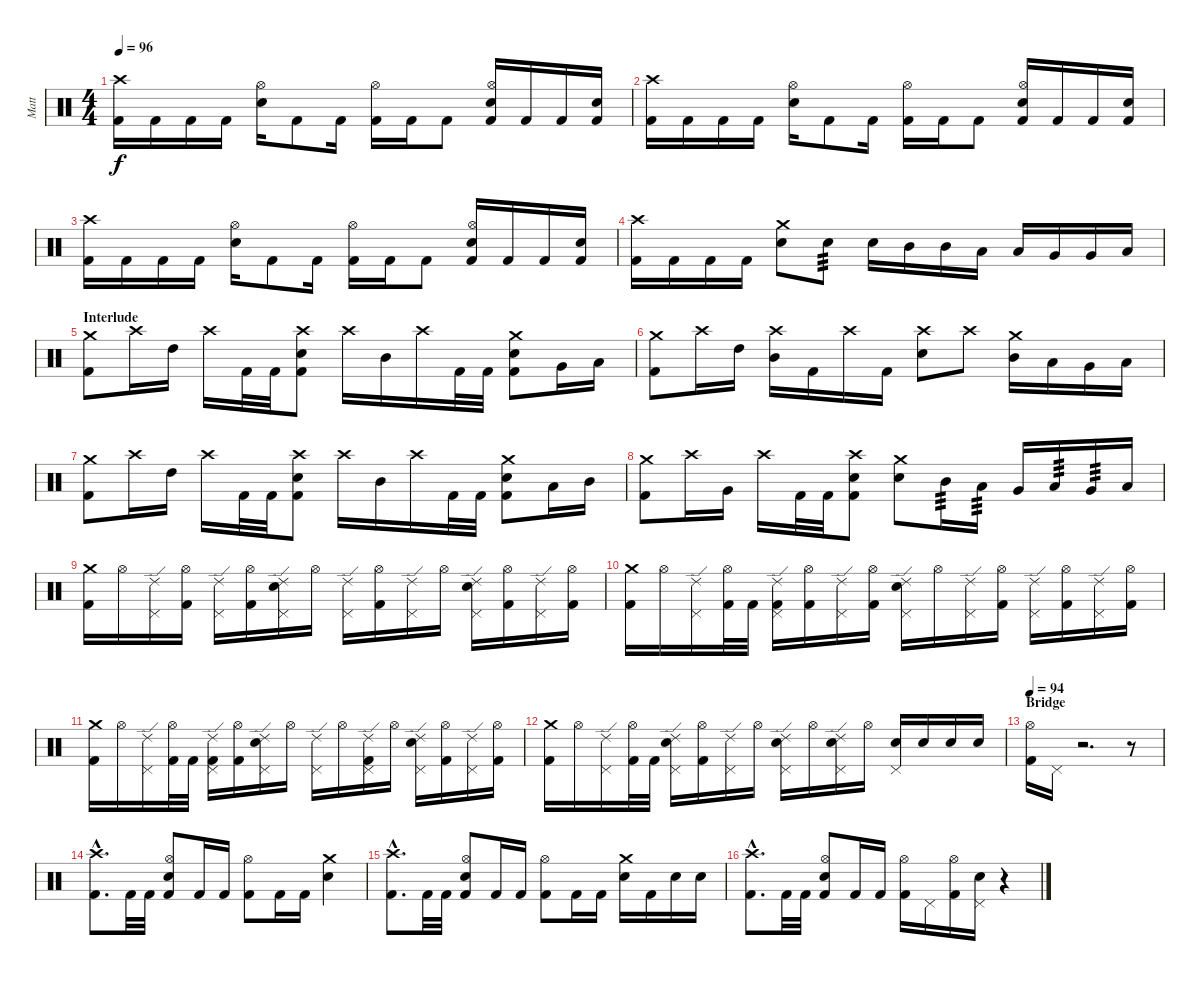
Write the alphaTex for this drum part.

\track ("Matt" "Matt") {instrument percussion}
\staff {score}
\articulation defaults
\ts (4 4)
\tempo 96
\clef neutral
\ks c
("Crash high (hit)" "Kick (hit) 2").16{dy f} "Kick (hit) 2".16 "Kick (hit) 2".16 "Kick (hit) 2".16 ("Hi-Hat (open)" "Electric Snare (hit)").16 "Kick (hit) 2".8 "Kick (hit) 2".16 ("Hi-Hat (open)" "Kick (hit) 2").16 "Kick (hit) 2".16 "Kick (hit) 2".8 ("Hi-Hat (open)" "Electric Snare (hit)" "Kick (hit) 2").16 "Kick (hit) 2".16 "Kick (hit) 2".16 ("Electric Snare (hit)" "Kick (hit) 2").16 |
("Crash high (hit)" "Kick (hit) 2").16 "Kick (hit) 2".16 "Kick (hit) 2".16 "Kick (hit) 2".16 ("Hi-Hat (open)" "Electric Snare (hit)").16 "Kick (hit) 2".8 "Kick (hit) 2".16 ("Hi-Hat (open)" "Kick (hit) 2").16 "Kick (hit) 2".16 "Kick (hit) 2".8 ("Hi-Hat (open)" "Electric Snare (hit)" "Kick (hit) 2").16 "Kick (hit) 2".16 "Kick (hit) 2".16 ("Electric Snare (hit)" "Kick (hit) 2").16 |
("Crash high (hit)" "Kick (hit) 2").16 "Kick (hit) 2".16 "Kick (hit) 2".16 "Kick (hit) 2".16 ("Hi-Hat (open)" "Electric Snare (hit)").16 "Kick (hit) 2".8 "Kick (hit) 2".16 ("Hi-Hat (open)" "Kick (hit) 2").16 "Kick (hit) 2".16 "Kick (hit) 2".8 ("Hi-Hat (open)" "Electric Snare (hit)" "Kick (hit) 2").16 "Kick (hit) 2".16 "Kick (hit) 2".16 ("Electric Snare (hit)" "Kick (hit) 2").16 |
("Crash high (hit)" "Kick (hit) 2").16 "Kick (hit) 2".16 "Kick (hit) 2".16 "Kick (hit) 2".16 ("Crash medium (hit)" "Electric Snare (hit)").8 "Electric Snare (hit)".8{tp 3} "Electric Snare (hit)".16 "Mid Tom (hit)".16 "Mid Tom (hit)".16 "Low Tom (hit)".16 "Low Tom (hit)".16 "Very Low Tom (hit)".16 "Very Low Tom (hit)".16 "Low Floor Tom (hit)".16 |
\section ("" "Interlude")
("Crash medium (hit)" "Kick (hit) 2").8 "Crash high (hit)".16 "High Tom (hit)".16 "Crash high (hit)".16 "Kick (hit) 2".32 "Kick (hit) 2".32 ("Crash high (hit)" "Electric Snare (hit)" "Kick (hit) 2").8 "Crash high (hit)".16 "Mid Tom (hit)".16 "Crash high (hit)".16 "Kick (hit) 2".32 "Kick (hit) 2".32 ("Crash medium (hit)" "Electric Snare (hit)" "Kick (hit) 2").8 "Very Low Tom (hit)".16 "Low Floor Tom (hit)".16 |
("Crash medium (hit)" "Kick (hit) 2").8 "Crash high (hit)".16 "High Tom (hit)".16 ("Crash high (hit)" "Mid Tom (hit)").16 "Kick (hit) 2".16 "Crash high (hit)".16 "Kick (hit) 2".16 ("Crash high (hit)" "Electric Snare (hit)").8 "Crash high (hit)".8 ("Crash medium (hit)" "Mid Tom (hit)").16 "Low Tom (hit)".16 "Very Low Tom (hit)".16 "Low Floor Tom (hit)".16 |
("Crash medium (hit)" "Kick (hit) 2").8 "Crash high (hit)".16 "High Tom (hit)".16 "Crash high (hit)".16 "Kick (hit) 2".32 "Kick (hit) 2".32 ("Crash high (hit)" "Electric Snare (hit)" "Kick (hit) 2").8 "Crash high (hit)".16 "Mid Tom (hit)".16 "Crash high (hit)".16 "Kick (hit) 2".32 "Kick (hit) 2".32 ("Crash medium (hit)" "Electric Snare (hit)" "Kick (hit) 2").8 "Low Tom (hit)".16 "Mid Tom (hit)".16 |
("Crash medium (hit)" "Kick (hit) 2").8 "Crash high (hit)".16 "Very Low Tom (hit)".16 "Crash high (hit)".16 "Kick (hit) 2".32 "Kick (hit) 2".32 ("Crash high (hit)" "Electric Snare (hit)" "Kick (hit) 2").8 ("Crash medium (hit)" "Electric Snare (hit)").8 "Mid Tom (hit)".16{tp 3} "Low Tom (hit)".16{tp 3} "Very Low Tom (hit)".16 "Low Tom (hit)".16{tp 3} "Very Low Tom (hit)".16{tp 3} "Low Floor Tom (hit)".16 |
("Crash medium (hit)" "Kick (hit) 2").16 "Hi-Hat (open)".16 ("Pedal Hi-Hat (hit)" "Ride (edge) 2").16 ("Hi-Hat (open)" "Kick (hit) 2").16 ("Pedal Hi-Hat (hit)" "Ride (edge) 2").16 ("Hi-Hat (open)" "Kick (hit) 2").16 ("Pedal Hi-Hat (hit)" "Ride (edge) 2" "Electric Snare (hit)").16 "Hi-Hat (open)".16 ("Pedal Hi-Hat (hit)" "Ride (edge) 2").16 ("Hi-Hat (open)" "Kick (hit) 2").16 ("Pedal Hi-Hat (hit)" "Ride (edge) 2").16 "Hi-Hat (open)".16 ("Pedal Hi-Hat (hit)" "Ride (edge) 2" "Electric Snare (hit)").16 ("Hi-Hat (open)" "Kick (hit) 2").16 ("Pedal Hi-Hat (hit)" "Ride (edge) 2").16 ("Hi-Hat (open)" "Kick (hit) 2").16 |
("Crash medium (hit)" "Kick (hit) 2").16 "Hi-Hat (open)".16 ("Pedal Hi-Hat (hit)" "Ride (edge) 2").16 ("Hi-Hat (open)" "Kick (hit) 2").32 "Kick (hit) 2".32 ("Pedal Hi-Hat (hit)" "Ride (edge) 2" "Kick (hit) 2").16 ("Hi-Hat (open)" "Kick (hit) 2").16 ("Pedal Hi-Hat (hit)" "Ride (edge) 2").16 ("Hi-Hat (open)" "Kick (hit) 2").16 ("Pedal Hi-Hat (hit)" "Ride (edge) 2" "Electric Snare (hit)").16 "Hi-Hat (open)".16 ("Pedal Hi-Hat (hit)" "Ride (edge) 2").16 ("Hi-Hat (open)" "Kick (hit) 2").16 ("Pedal Hi-Hat (hit)" "Ride (edge) 2").16 ("Hi-Hat (open)" "Kick (hit) 2").16 ("Pedal Hi-Hat (hit)" "Ride (edge) 2").16 ("Hi-Hat (open)" "Kick (hit) 2").16 |
("Crash medium (hit)" "Kick (hit) 2").16 "Hi-Hat (open)".16 ("Pedal Hi-Hat (hit)" "Ride (edge) 2").16 ("Hi-Hat (open)" "Kick (hit) 2").32 "Kick (hit) 2".32 ("Pedal Hi-Hat (hit)" "Ride (edge) 2" "Kick (hit) 2").16 ("Hi-Hat (open)" "Kick (hit) 2").16 ("Pedal Hi-Hat (hit)" "Ride (edge) 2" "Electric Snare (hit)").16 "Hi-Hat (open)".16 ("Pedal Hi-Hat (hit)" "Ride (edge) 2").16 "Hi-Hat (open)".16 ("Pedal Hi-Hat (hit)" "Ride (edge) 2" "Kick (hit) 2").16 "Hi-Hat (open)".16 ("Pedal Hi-Hat (hit)" "Ride (edge) 2" "Electric Snare (hit)").16 ("Hi-Hat (open)" "Kick (hit) 2").16 ("Pedal Hi-Hat (hit)" "Ride (edge) 2").16 ("Hi-Hat (open)" "Kick (hit) 2").16 |
("Crash medium (hit)" "Kick (hit) 2").16 "Hi-Hat (open)".16 ("Pedal Hi-Hat (hit)" "Ride (edge) 2").16 ("Hi-Hat (open)" "Kick (hit) 2").32 "Kick (hit) 2".32 ("Pedal Hi-Hat (hit)" "Ride (edge) 2" "Electric Snare (hit)").16 ("Hi-Hat (open)" "Kick (hit) 2").16 ("Pedal Hi-Hat (hit)" "Ride (edge) 2").16 "Hi-Hat (open)".16 ("Pedal Hi-Hat (hit)" "Ride (edge) 2" "Electric Snare (hit)").16 "Hi-Hat (open)".16 ("Pedal Hi-Hat (hit)" "Ride (edge) 2" "Electric Snare (hit)").16 "Hi-Hat (open)".16 ("Pedal Hi-Hat (hit)" "Electric Snare (hit)").16 "Electric Snare (hit)".16 "Electric Snare (hit)".16 "Electric Snare (hit)".16 |
\section ("" "Bridge")
\tempo 94
("Hi-Hat (open)" "Kick (hit) 2").16 "Pedal Hi-Hat (hit)".16 r.2{d} r.8 |
("Crash high (hit)"{hac} "Kick (hit) 2"{hac}).8{d} "Kick (hit) 2".32 "Kick (hit) 2".32 ("Hi-Hat (open)" "Electric Snare (hit)" "Kick (hit) 2").8 "Kick (hit) 2".16 "Kick (hit) 2".16 ("Hi-Hat (open)" "Kick (hit) 2").8 "Kick (hit) 2".16 "Kick (hit) 2".16 ("Crash medium (hit)" "Electric Snare (hit)").4 |
("Crash high (hit)"{hac} "Kick (hit) 2"{hac}).8{d} "Kick (hit) 2".32 "Kick (hit) 2".32 ("Hi-Hat (open)" "Electric Snare (hit)" "Kick (hit) 2").8 "Kick (hit) 2".16 "Kick (hit) 2".16 ("Hi-Hat (open)" "Kick (hit) 2").8 "Kick (hit) 2".16 "Kick (hit) 2".16 ("Crash medium (hit)" "Electric Snare (hit)").16 "Kick (hit) 2".16 "Electric Snare (hit)".16 "Electric Snare (hit)".16 |
("Crash high (hit)"{hac} "Kick (hit) 2"{hac}).8{d} "Kick (hit) 2".32 "Kick (hit) 2".32 ("Hi-Hat (open)" "Electric Snare (hit)" "Kick (hit) 2").8 "Kick (hit) 2".16 "Kick (hit) 2".16 ("Hi-Hat (open)" "Kick (hit) 2").16 "Pedal Hi-Hat (hit)".16 ("Hi-Hat (open)" "Kick (hit) 2").16 ("Pedal Hi-Hat (hit)" "Electric Snare (hit)").16 r.4
